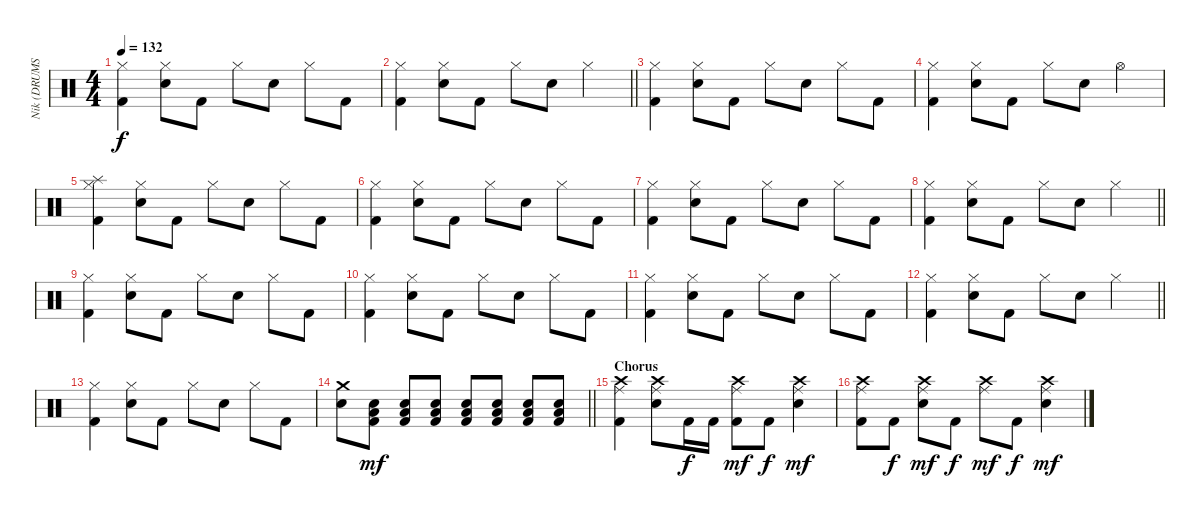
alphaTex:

\track ("Nik (DRUMS)" "Nik (DRUMS") {instrument percussion}
\staff {score}
\articulation defaults
\ts (4 4)
\tempo 132
\clef neutral
\ks c
("Hi-Hat (closed)" "Kick (hit) 2").4{dy f} ("Hi-Hat (closed)" "Electric Snare (hit)").8 "Kick (hit) 2".8 "Hi-Hat (closed)".8 "Electric Snare (hit)".8 "Hi-Hat (closed)".8 "Kick (hit) 2".8 |
\barLineRight lightlight
("Hi-Hat (closed)" "Kick (hit) 2").4 ("Hi-Hat (closed)" "Electric Snare (hit)").8 "Kick (hit) 2".8 "Hi-Hat (closed)".8 "Electric Snare (hit)".8 "Hi-Hat (closed)".4 |
("Hi-Hat (closed)" "Kick (hit) 2").4 ("Hi-Hat (closed)" "Electric Snare (hit)").8 "Kick (hit) 2".8 "Hi-Hat (closed)".8 "Electric Snare (hit)".8 "Hi-Hat (closed)".8 "Kick (hit) 2".8 |
("Hi-Hat (closed)" "Kick (hit) 2").4 ("Hi-Hat (closed)" "Electric Snare (hit)").8 "Kick (hit) 2".8 "Hi-Hat (closed)".8 "Electric Snare (hit)".8 "Hi-Hat (open)".4 |
("Splash (hit)" "Hi-Hat (closed)" "Kick (hit) 2").4 ("Hi-Hat (closed)" "Electric Snare (hit)").8 "Kick (hit) 2".8 "Hi-Hat (closed)".8 "Electric Snare (hit)".8 "Hi-Hat (closed)".8 "Kick (hit) 2".8 |
("Hi-Hat (closed)" "Kick (hit) 2").4 ("Hi-Hat (closed)" "Electric Snare (hit)").8 "Kick (hit) 2".8 "Hi-Hat (closed)".8 "Electric Snare (hit)".8 "Hi-Hat (closed)".8 "Kick (hit) 2".8 |
("Hi-Hat (closed)" "Kick (hit) 2").4 ("Hi-Hat (closed)" "Electric Snare (hit)").8 "Kick (hit) 2".8 "Hi-Hat (closed)".8 "Electric Snare (hit)".8 "Hi-Hat (closed)".8 "Kick (hit) 2".8 |
\barLineRight lightlight
("Hi-Hat (closed)" "Kick (hit) 2").4 ("Hi-Hat (closed)" "Electric Snare (hit)").8 "Kick (hit) 2".8 "Hi-Hat (closed)".8 "Electric Snare (hit)".8 "Hi-Hat (closed)".4 |
("Hi-Hat (closed)" "Kick (hit) 2").4 ("Hi-Hat (closed)" "Electric Snare (hit)").8 "Kick (hit) 2".8 "Hi-Hat (closed)".8 "Electric Snare (hit)".8 "Hi-Hat (closed)".8 "Kick (hit) 2".8 |
("Hi-Hat (closed)" "Kick (hit) 2").4 ("Hi-Hat (closed)" "Electric Snare (hit)").8 "Kick (hit) 2".8 "Hi-Hat (closed)".8 "Electric Snare (hit)".8 "Hi-Hat (closed)".8 "Kick (hit) 2".8 |
("Hi-Hat (closed)" "Kick (hit) 2").4 ("Hi-Hat (closed)" "Electric Snare (hit)").8 "Kick (hit) 2".8 "Hi-Hat (closed)".8 "Electric Snare (hit)".8 "Hi-Hat (closed)".8 "Kick (hit) 2".8 |
\barLineRight lightlight
("Hi-Hat (closed)" "Kick (hit) 2").4 ("Hi-Hat (closed)" "Electric Snare (hit)").8 "Kick (hit) 2".8 "Hi-Hat (closed)".8 "Electric Snare (hit)".8 "Hi-Hat (closed)".4 |
("Hi-Hat (closed)" "Kick (hit) 2").4 ("Hi-Hat (closed)" "Electric Snare (hit)").8 "Kick (hit) 2".8 "Hi-Hat (closed)".8 "Electric Snare (hit)".8 "Hi-Hat (closed)".8 "Kick (hit) 2".8 |
\barLineRight lightlight
("Crash medium (hit)" "Electric Snare (hit)").8 ("Electric Snare (hit)" "Low Floor Tom (hit)" "Kick (hit) 2").8{dy mf} ("Electric Snare (hit)" "Low Floor Tom (hit)" "Kick (hit) 2").8 ("Electric Snare (hit)" "Low Floor Tom (hit)" "Kick (hit) 2").8 ("Electric Snare (hit)" "Low Floor Tom (hit)" "Kick (hit) 2").8 ("Electric Snare (hit)" "Low Floor Tom (hit)" "Kick (hit) 2").8 ("Electric Snare (hit)" "Low Floor Tom (hit)" "Kick (hit) 2").8 ("Electric Snare (hit)" "Low Floor Tom (hit)" "Kick (hit) 2").8 |
\section ("" "Chorus")
("Crash high (hit)" "Ride (middle)" "Kick (hit) 2").4 ("Crash high (hit)" "Ride (middle)" "Electric Snare (hit)").8 "Kick (hit) 2".16{dy f} "Kick (hit) 2".16 ("Crash high (hit)" "Ride (middle)" "Kick (hit) 2").8{dy mf} "Kick (hit) 2".8{dy f} ("Crash high (hit)" "Ride (middle)" "Electric Snare (hit)").4{dy mf} |
("Crash high (hit)" "Ride (middle)" "Kick (hit) 2").8 "Kick (hit) 2".8{dy f} ("Crash high (hit)" "Ride (middle)" "Electric Snare (hit)").8{dy mf} "Kick (hit) 2".8{dy f} ("Crash high (hit)" "Ride (middle)").8{dy mf} "Kick (hit) 2".8{dy f} ("Crash high (hit)" "Ride (middle)" "Electric Snare (hit)").4{dy mf}
